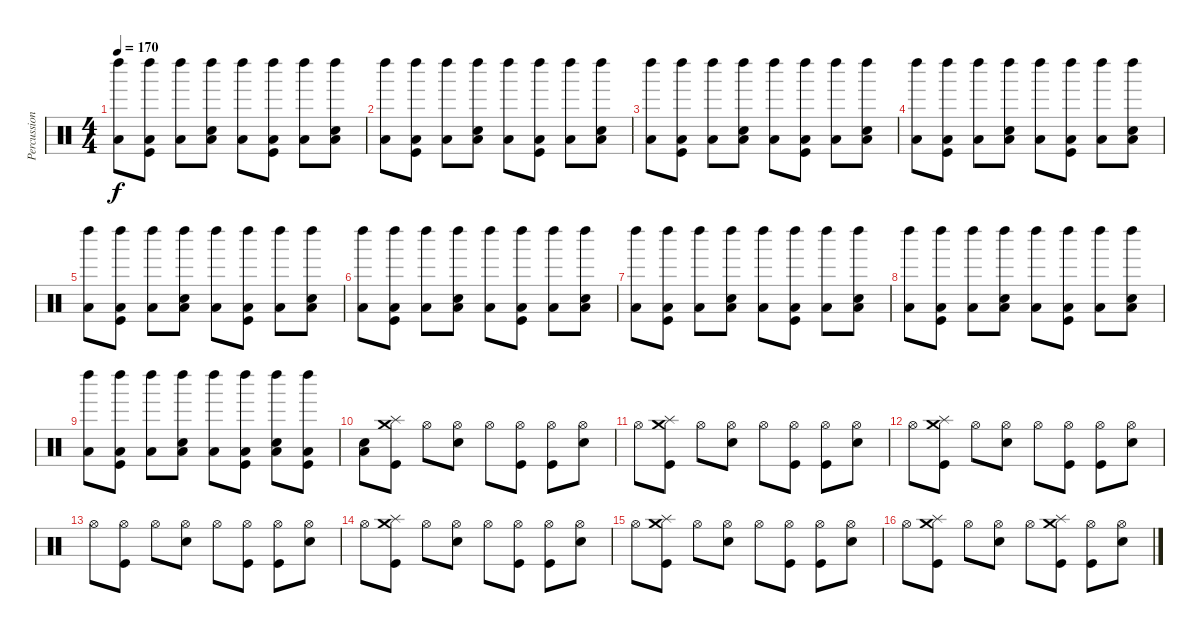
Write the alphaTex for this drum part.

\track ("Percussion" "Percussion") {instrument percussion}
\staff {score}
\articulation defaults
\ts (4 4)
\tempo 170
\clef neutral
\ks c
("Left Maraca (hit)" "Low Floor Tom (hit)").8{dy f} ("Left Maraca (hit)" "Low Floor Tom (hit)" "Kick (hit)").8 ("Left Maraca (hit)" "Low Floor Tom (hit)").8 ("Left Maraca (hit)" "Low Floor Tom (hit)" "Electric Snare (hit)").8 ("Left Maraca (hit)" "Low Floor Tom (hit)").8 ("Left Maraca (hit)" "Low Floor Tom (hit)" "Kick (hit)").8 ("Left Maraca (hit)" "Low Floor Tom (hit)").8 ("Left Maraca (hit)" "Low Floor Tom (hit)" "Electric Snare (hit)").8 |
("Left Maraca (hit)" "Low Floor Tom (hit)").8 ("Left Maraca (hit)" "Low Floor Tom (hit)" "Kick (hit)").8 ("Left Maraca (hit)" "Low Floor Tom (hit)").8 ("Left Maraca (hit)" "Low Floor Tom (hit)" "Electric Snare (hit)").8 ("Left Maraca (hit)" "Low Floor Tom (hit)").8 ("Left Maraca (hit)" "Low Floor Tom (hit)" "Kick (hit)").8 ("Left Maraca (hit)" "Low Floor Tom (hit)").8 ("Left Maraca (hit)" "Low Floor Tom (hit)" "Electric Snare (hit)").8 |
("Left Maraca (hit)" "Low Floor Tom (hit)").8 ("Left Maraca (hit)" "Low Floor Tom (hit)" "Kick (hit)").8 ("Left Maraca (hit)" "Low Floor Tom (hit)").8 ("Left Maraca (hit)" "Low Floor Tom (hit)" "Electric Snare (hit)").8 ("Left Maraca (hit)" "Low Floor Tom (hit)").8 ("Left Maraca (hit)" "Low Floor Tom (hit)" "Kick (hit)").8 ("Left Maraca (hit)" "Low Floor Tom (hit)").8 ("Left Maraca (hit)" "Low Floor Tom (hit)" "Electric Snare (hit)").8 |
("Left Maraca (hit)" "Low Floor Tom (hit)").8 ("Left Maraca (hit)" "Low Floor Tom (hit)" "Kick (hit)").8 ("Left Maraca (hit)" "Low Floor Tom (hit)").8 ("Left Maraca (hit)" "Low Floor Tom (hit)" "Electric Snare (hit)").8 ("Left Maraca (hit)" "Low Floor Tom (hit)").8 ("Left Maraca (hit)" "Low Floor Tom (hit)" "Kick (hit)").8 ("Left Maraca (hit)" "Low Floor Tom (hit)").8 ("Left Maraca (hit)" "Low Floor Tom (hit)" "Electric Snare (hit)").8 |
("Left Maraca (hit)" "Low Floor Tom (hit)").8 ("Left Maraca (hit)" "Low Floor Tom (hit)" "Kick (hit)").8 ("Left Maraca (hit)" "Low Floor Tom (hit)").8 ("Left Maraca (hit)" "Low Floor Tom (hit)" "Electric Snare (hit)").8 ("Left Maraca (hit)" "Low Floor Tom (hit)").8 ("Left Maraca (hit)" "Low Floor Tom (hit)" "Kick (hit)").8 ("Left Maraca (hit)" "Low Floor Tom (hit)").8 ("Left Maraca (hit)" "Low Floor Tom (hit)" "Electric Snare (hit)").8 |
("Left Maraca (hit)" "Low Floor Tom (hit)").8 ("Left Maraca (hit)" "Low Floor Tom (hit)" "Kick (hit)").8 ("Left Maraca (hit)" "Low Floor Tom (hit)").8 ("Left Maraca (hit)" "Low Floor Tom (hit)" "Electric Snare (hit)").8 ("Left Maraca (hit)" "Low Floor Tom (hit)").8 ("Left Maraca (hit)" "Low Floor Tom (hit)" "Kick (hit)").8 ("Left Maraca (hit)" "Low Floor Tom (hit)").8 ("Left Maraca (hit)" "Low Floor Tom (hit)" "Electric Snare (hit)").8 |
("Left Maraca (hit)" "Low Floor Tom (hit)").8 ("Left Maraca (hit)" "Low Floor Tom (hit)" "Kick (hit)").8 ("Left Maraca (hit)" "Low Floor Tom (hit)").8 ("Left Maraca (hit)" "Low Floor Tom (hit)" "Electric Snare (hit)").8 ("Left Maraca (hit)" "Low Floor Tom (hit)").8 ("Left Maraca (hit)" "Low Floor Tom (hit)" "Kick (hit)").8 ("Left Maraca (hit)" "Low Floor Tom (hit)").8 ("Left Maraca (hit)" "Low Floor Tom (hit)" "Electric Snare (hit)").8 |
("Left Maraca (hit)" "Low Floor Tom (hit)").8 ("Left Maraca (hit)" "Low Floor Tom (hit)" "Kick (hit)").8 ("Left Maraca (hit)" "Low Floor Tom (hit)").8 ("Left Maraca (hit)" "Low Floor Tom (hit)" "Electric Snare (hit)").8 ("Left Maraca (hit)" "Low Floor Tom (hit)").8 ("Left Maraca (hit)" "Low Floor Tom (hit)" "Kick (hit)").8 ("Left Maraca (hit)" "Low Floor Tom (hit)").8 ("Left Maraca (hit)" "Low Floor Tom (hit)" "Electric Snare (hit)").8 |
("Left Maraca (hit)" "Low Floor Tom (hit)").8 ("Left Maraca (hit)" "Low Floor Tom (hit)" "Kick (hit)").8 ("Left Maraca (hit)" "Low Floor Tom (hit)").8 ("Left Maraca (hit)" "Low Floor Tom (hit)" "Electric Snare (hit)").8 ("Left Maraca (hit)" "Low Floor Tom (hit)").8 ("Left Maraca (hit)" "Low Floor Tom (hit)" "Kick (hit)").8 ("Left Maraca (hit)" "Low Floor Tom (hit)" "Electric Snare (hit)").8 ("Left Maraca (hit)" "Low Floor Tom (hit)" "Kick (hit)").8 |
("Low Floor Tom (hit)" "Electric Snare (hit)").8 ("Crash medium (hit)" "Splash (hit)" "Kick (hit)").8 "Hi-Hat (open)".8 ("Hi-Hat (open)" "Electric Snare (hit)").8 "Hi-Hat (open)".8 ("Hi-Hat (open)" "Kick (hit)").8 ("Hi-Hat (open)" "Kick (hit)").8 ("Hi-Hat (open)" "Electric Snare (hit)").8 |
"Hi-Hat (open)".8 ("Splash (hit)" "Crash medium (hit)" "Kick (hit)").8 "Hi-Hat (open)".8 ("Hi-Hat (open)" "Electric Snare (hit)").8 "Hi-Hat (open)".8 ("Hi-Hat (open)" "Kick (hit)").8 ("Hi-Hat (open)" "Kick (hit)").8 ("Hi-Hat (open)" "Electric Snare (hit)").8 |
"Hi-Hat (open)".8 ("Crash medium (hit)" "Splash (hit)" "Kick (hit)").8 "Hi-Hat (open)".8 ("Hi-Hat (open)" "Electric Snare (hit)").8 "Hi-Hat (open)".8 ("Hi-Hat (open)" "Kick (hit)").8 ("Hi-Hat (open)" "Kick (hit)").8 ("Hi-Hat (open)" "Electric Snare (hit)").8 |
"Hi-Hat (open)".8 ("Hi-Hat (open)" "Kick (hit)").8 "Hi-Hat (open)".8 ("Hi-Hat (open)" "Electric Snare (hit)").8 "Hi-Hat (open)".8 ("Hi-Hat (open)" "Kick (hit)").8 ("Hi-Hat (open)" "Kick (hit)").8 ("Hi-Hat (open)" "Electric Snare (hit)").8 |
"Hi-Hat (open)".8 ("Crash medium (hit)" "Splash (hit)" "Kick (hit)").8 "Hi-Hat (open)".8 ("Hi-Hat (open)" "Electric Snare (hit)").8 "Hi-Hat (open)".8 ("Hi-Hat (open)" "Kick (hit)").8 ("Hi-Hat (open)" "Kick (hit)").8 ("Hi-Hat (open)" "Electric Snare (hit)").8 |
"Hi-Hat (open)".8 ("Crash medium (hit)" "Splash (hit)" "Kick (hit)").8 "Hi-Hat (open)".8 ("Hi-Hat (open)" "Electric Snare (hit)").8 "Hi-Hat (open)".8 ("Hi-Hat (open)" "Kick (hit)").8 ("Hi-Hat (open)" "Kick (hit)").8 ("Hi-Hat (open)" "Electric Snare (hit)").8 |
"Hi-Hat (open)".8 ("Crash medium (hit)" "Splash (hit)" "Kick (hit)").8 "Hi-Hat (open)".8 ("Hi-Hat (open)" "Electric Snare (hit)").8 "Hi-Hat (open)".8 ("Crash medium (hit)" "Splash (hit)" "Kick (hit)").8 ("Hi-Hat (open)" "Kick (hit)").8 ("Hi-Hat (open)" "Electric Snare (hit)").8
